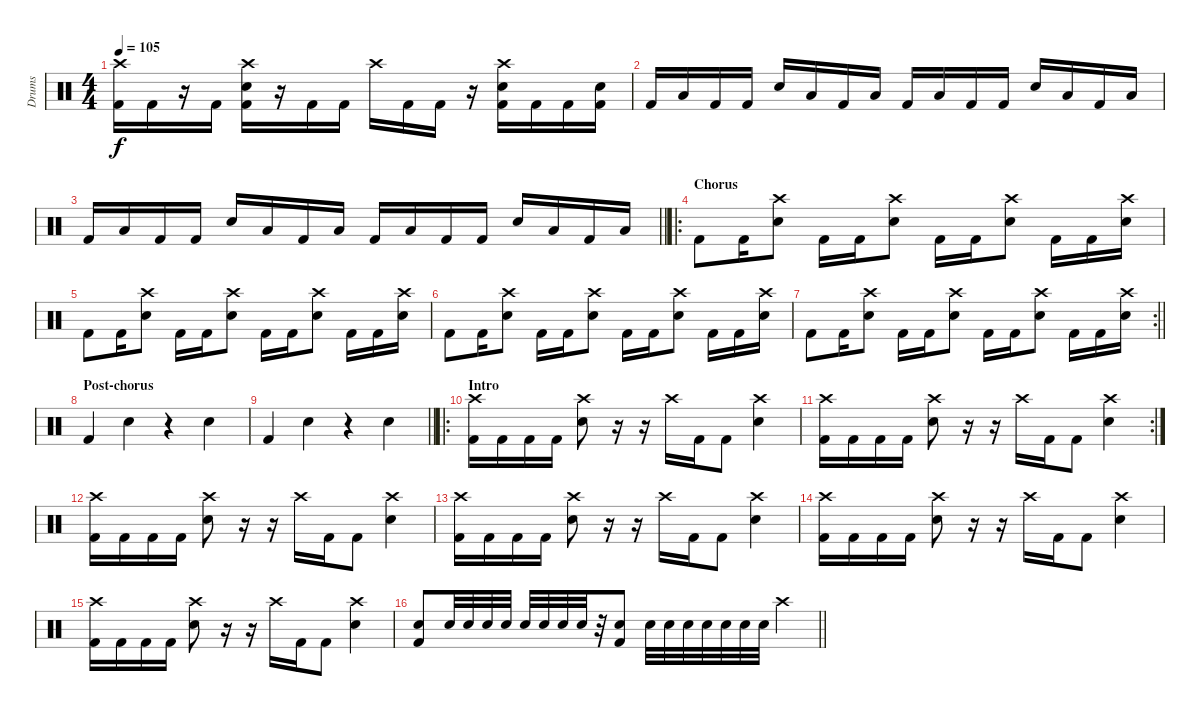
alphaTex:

\track ("Drums" "Drums") {instrument percussion}
\staff {score}
\articulation defaults
\ts (4 4)
\tempo 105
\clef neutral
\ks c
("Crash high (hit)" "Kick (hit) 2").16{dy f} "Kick (hit) 2".16 r.16 "Kick (hit) 2".16 ("Crash high (hit)" "Electric Snare (hit)" "Kick (hit) 2").16 r.16 "Kick (hit) 2".16 "Kick (hit) 2".16 "Crash high (hit)".16 "Kick (hit) 2".16 "Kick (hit) 2".16 r.16 ("Crash high (hit)" "Electric Snare (hit)" "Kick (hit) 2").16 "Kick (hit) 2".16 "Kick (hit) 2".16 ("Electric Snare (hit)" "Kick (hit) 2").16 |
"Kick (hit) 2".16 "Low Tom (hit)".16 "Kick (hit) 2".16 "Kick (hit) 2".16 "Electric Snare (hit)".16 "Low Tom (hit)".16 "Kick (hit) 2".16 "Low Tom (hit)".16 "Kick (hit) 2".16 "Low Tom (hit)".16 "Kick (hit) 2".16 "Kick (hit) 2".16 "Electric Snare (hit)".16 "Low Tom (hit)".16 "Kick (hit) 2".16 "Low Tom (hit)".16 |
\barLineRight lightlight "Kick (hit) 2".16 "Low Tom (hit)".16 "Kick (hit) 2".16 "Kick (hit) 2".16 "Electric Snare (hit)".16 "Low Tom (hit)".16 "Kick (hit) 2".16 "Low Tom (hit)".16 "Kick (hit) 2".16 "Low Tom (hit)".16 "Kick (hit) 2".16 "Kick (hit) 2".16 "Electric Snare (hit)".16 "Low Tom (hit)".16 "Kick (hit) 2".16 "Low Tom (hit)".16
|
\ro
\section ("" "Chorus")
"Kick (hit) 2".8 "Kick (hit) 2".16 ("Crash high (hit)" "Electric Snare (hit)").8 "Kick (hit) 2".16 "Kick (hit) 2".16 ("Crash high (hit)" "Electric Snare (hit)").8 "Kick (hit) 2".16 "Kick (hit) 2".16 ("Crash high (hit)" "Electric Snare (hit)").8 "Kick (hit) 2".16 "Kick (hit) 2".16 ("Crash high (hit)" "Electric Snare (hit)").16 |
"Kick (hit) 2".8 "Kick (hit) 2".16 ("Crash high (hit)" "Electric Snare (hit)").8 "Kick (hit) 2".16 "Kick (hit) 2".16 ("Crash high (hit)" "Electric Snare (hit)").8 "Kick (hit) 2".16 "Kick (hit) 2".16 ("Crash high (hit)" "Electric Snare (hit)").8 "Kick (hit) 2".16 "Kick (hit) 2".16 ("Crash high (hit)" "Electric Snare (hit)").16 |
"Kick (hit) 2".8 "Kick (hit) 2".16 ("Crash high (hit)" "Electric Snare (hit)").8 "Kick (hit) 2".16 "Kick (hit) 2".16 ("Crash high (hit)" "Electric Snare (hit)").8 "Kick (hit) 2".16 "Kick (hit) 2".16 ("Crash high (hit)" "Electric Snare (hit)").8 "Kick (hit) 2".16 "Kick (hit) 2".16 ("Crash high (hit)" "Electric Snare (hit)").16 |
\rc 2
\barLineRight lightlight "Kick (hit) 2".8 "Kick (hit) 2".16
("Crash high (hit)" "Electric Snare (hit)").8 "Kick (hit) 2".16 "Kick (hit) 2".16 ("Crash high (hit)" "Electric Snare (hit)").8 "Kick (hit) 2".16 "Kick (hit) 2".16 ("Crash high (hit)" "Electric Snare (hit)").8 "Kick (hit) 2".16 "Kick (hit) 2".16 ("Crash high (hit)" "Electric Snare (hit)").16 |
\section ("" "Post-chorus")
"Kick (hit) 2".4 "Electric Snare (hit)".4 r.4 "Electric Snare (hit)".4 |
\barLineRight lightlight "Kick (hit) 2".4 "Electric Snare (hit)".4
r.4 "Electric Snare (hit)".4 |
\ro
\section ("" "Intro")
("Crash high (hit)" "Kick (hit) 2").16 "Kick (hit) 2".16 "Kick (hit) 2".16 "Kick (hit) 2".16 ("Crash high (hit)" "Electric Snare (hit)").8 r.16 r.16 "Crash high (hit)".16 "Kick (hit) 2".16 "Kick (hit) 2".8 ("Crash high (hit)" "Electric Snare (hit)").4 |
\rc 2
("Crash high (hit)" "Kick (hit) 2").16 "Kick (hit) 2".16 "Kick (hit) 2".16 "Kick (hit) 2".16 ("Crash high (hit)" "Electric Snare (hit)").8 r.16 r.16 "Crash high (hit)".16 "Kick (hit) 2".16 "Kick (hit) 2".8 ("Crash high (hit)" "Electric Snare (hit)").4 |
("Crash high (hit)" "Kick (hit) 2").16 "Kick (hit) 2".16 "Kick (hit) 2".16 "Kick (hit) 2".16 ("Crash high (hit)" "Electric Snare (hit)").8 r.16 r.16 "Crash high (hit)".16 "Kick (hit) 2".16 "Kick (hit) 2".8 ("Crash high (hit)" "Electric Snare (hit)").4 |
("Crash high (hit)" "Kick (hit) 2").16 "Kick (hit) 2".16 "Kick (hit) 2".16 "Kick (hit) 2".16 ("Crash high (hit)" "Electric Snare (hit)").8 r.16 r.16 "Crash high (hit)".16 "Kick (hit) 2".16 "Kick (hit) 2".8 ("Crash high (hit)" "Electric Snare (hit)").4 |
("Crash high (hit)" "Kick (hit) 2").16 "Kick (hit) 2".16 "Kick (hit) 2".16 "Kick (hit) 2".16 ("Crash high (hit)" "Electric Snare (hit)").8 r.16 r.16 "Crash high (hit)".16 "Kick (hit) 2".16 "Kick (hit) 2".8 ("Crash high (hit)" "Electric Snare (hit)").4 |
("Crash high (hit)" "Kick (hit) 2").16 "Kick (hit) 2".16 "Kick (hit) 2".16 "Kick (hit) 2".16 ("Crash high (hit)" "Electric Snare (hit)").8 r.16 r.16 "Crash high (hit)".16 "Kick (hit) 2".16 "Kick (hit) 2".8 ("Crash high (hit)" "Electric Snare (hit)").4 |
\barLineRight lightlight
("Electric Snare (hit)" "Kick (hit) 2").8 "Electric Snare (hit)".32 "Electric Snare (hit)".32 "Electric Snare (hit)".32 "Electric Snare (hit)".32 "Electric Snare (hit)".32 "Electric Snare (hit)".32 "Electric Snare (hit)".32 "Electric Snare (hit)".32 r.32 ("Electric Snare (hit)" "Kick (hit) 2").8 "Electric Snare (hit)".32 "Electric Snare (hit)".32 "Electric Snare (hit)".32 "Electric Snare (hit)".32 "Electric Snare (hit)".32 "Electric Snare (hit)".32 "Electric Snare (hit)".32 "Crash high (hit)".4
